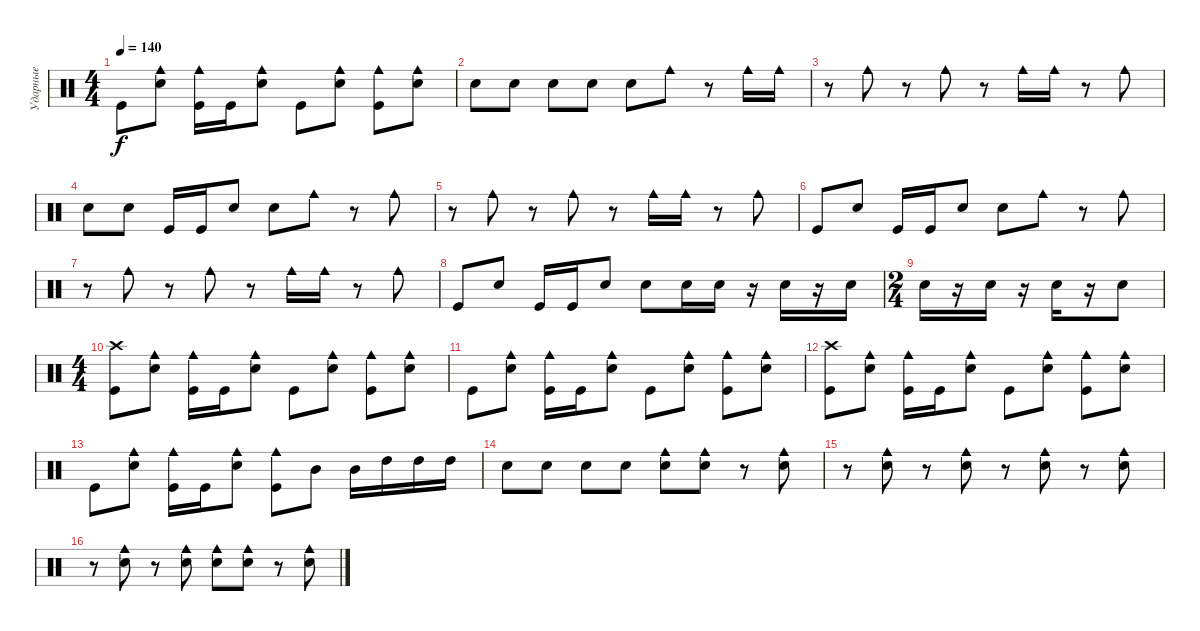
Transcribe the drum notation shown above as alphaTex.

\track ("Ударные" "Ударные") {instrument percussion}
\staff {score}
\articulation defaults
\ts (4 4)
\tempo 140
\clef neutral
\ks c "Kick (hit)".8{dy f}
("Cowbell medium (hit)" "Electric Snare (hit)").8 ("Cowbell medium (hit)" "Kick (hit)").16 "Kick (hit)".16 ("Cowbell medium (hit)" "Electric Snare (hit)").8 "Kick (hit)".8 ("Cowbell medium (hit)" "Electric Snare (hit)").8 ("Cowbell medium (hit)" "Kick (hit)").8 ("Cowbell medium (hit)" "Electric Snare (hit)").8 |
"Electric Snare (hit)".8 "Electric Snare (hit)".8 "Electric Snare (hit)".8 "Electric Snare (hit)".8 "Electric Snare (hit)".8 "Cowbell medium (hit)".8 r.8 "Cowbell medium (hit)".16 "Cowbell medium (hit)".16 |
r.8 "Cowbell medium (hit)".8 r.8 "Cowbell medium (hit)".8 r.8 "Cowbell medium (hit)".16 "Cowbell medium (hit)".16 r.8 "Cowbell medium (hit)".8 |
"Electric Snare (hit)".8 "Electric Snare (hit)".8 "Kick (hit)".16 "Kick (hit)".16 "Electric Snare (hit)".8 "Electric Snare (hit)".8 "Cowbell medium (hit)".8 r.8 "Cowbell medium (hit)".8 |
r.8 "Cowbell medium (hit)".8 r.8 "Cowbell medium (hit)".8 r.8 "Cowbell medium (hit)".16 "Cowbell medium (hit)".16 r.8 "Cowbell medium (hit)".8 |
"Kick (hit)".8 "Electric Snare (hit)".8 "Kick (hit)".16 "Kick (hit)".16 "Electric Snare (hit)".8 "Electric Snare (hit)".8 "Cowbell medium (hit)".8 r.8 "Cowbell medium (hit)".8 |
r.8 "Cowbell medium (hit)".8 r.8 "Cowbell medium (hit)".8 r.8 "Cowbell medium (hit)".16 "Cowbell medium (hit)".16 r.8 "Cowbell medium (hit)".8 |
"Kick (hit)".8 "Electric Snare (hit)".8 "Kick (hit)".16 "Kick (hit)".16 "Electric Snare (hit)".8 "Electric Snare (hit)".8 "Electric Snare (hit)".16 "Electric Snare (hit)".16 r.16 "Electric Snare (hit)".16 r.16 "Electric Snare (hit)".16 |
\ts (2 4)
"Electric Snare (hit)".16 r.16 "Electric Snare (hit)".16 r.16 "Electric Snare (hit)".16 r.16 "Electric Snare (hit)".8 |
\ts (4 4)
("Crash high (hit)" "Kick (hit)").8 ("Cowbell medium (hit)" "Electric Snare (hit)").8 ("Cowbell medium (hit)" "Kick (hit)").16 "Kick (hit)".16 ("Cowbell medium (hit)" "Electric Snare (hit)").8 "Kick (hit)".8 ("Cowbell medium (hit)" "Electric Snare (hit)").8 ("Cowbell medium (hit)" "Kick (hit)").8 ("Cowbell medium (hit)" "Electric Snare (hit)").8 |
"Kick (hit)".8 ("Cowbell medium (hit)" "Electric Snare (hit)").8 ("Cowbell medium (hit)" "Kick (hit)").16 "Kick (hit)".16 ("Cowbell medium (hit)" "Electric Snare (hit)").8 "Kick (hit)".8 ("Cowbell medium (hit)" "Electric Snare (hit)").8 ("Cowbell medium (hit)" "Kick (hit)").8 ("Cowbell medium (hit)" "Electric Snare (hit)").8 |
("Crash high (hit)" "Kick (hit)").8 ("Cowbell medium (hit)" "Electric Snare (hit)").8 ("Cowbell medium (hit)" "Kick (hit)").16 "Kick (hit)".16 ("Cowbell medium (hit)" "Electric Snare (hit)").8 "Kick (hit)".8 ("Cowbell medium (hit)" "Electric Snare (hit)").8 ("Cowbell medium (hit)" "Kick (hit)").8 ("Cowbell medium (hit)" "Electric Snare (hit)").8 |
"Kick (hit)".8 ("Cowbell medium (hit)" "Electric Snare (hit)").8 ("Cowbell medium (hit)" "Kick (hit)").16 "Kick (hit)".16 ("Cowbell medium (hit)" "Electric Snare (hit)").8 ("Cowbell medium (hit)" "Kick (hit)").8 "Mid Tom (hit)".8 "Mid Tom (hit)".16 "High Tom (hit)".16 "High Tom (hit)".16 "High Tom (hit)".16 |
"Electric Snare (hit)".8 "Electric Snare (hit)".8 "Electric Snare (hit)".8 "Electric Snare (hit)".8 ("Cowbell medium (hit)" "Electric Snare (hit)").8 ("Electric Snare (hit)" "Cowbell medium (hit)").8 r.8 ("Electric Snare (hit)" "Cowbell medium (hit)").8 |
r.8 ("Electric Snare (hit)" "Cowbell medium (hit)").8 r.8 ("Electric Snare (hit)" "Cowbell medium (hit)").8 r.8 ("Electric Snare (hit)" "Cowbell medium (hit)").8 r.8 ("Electric Snare (hit)" "Cowbell medium (hit)").8 |
r.8 ("Electric Snare (hit)" "Cowbell medium (hit)").8 r.8 ("Cowbell medium (hit)" "Electric Snare (hit)").8 ("Cowbell medium (hit)" "Electric Snare (hit)").8 ("Electric Snare (hit)" "Cowbell medium (hit)").8 r.8 ("Electric Snare (hit)" "Cowbell medium (hit)").8
